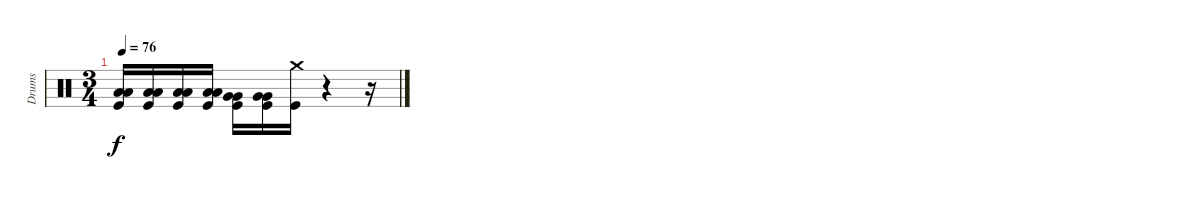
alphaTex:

\track ("Drums" "Drums") {instrument percussion}
\staff {score}
\articulation defaults
\ts (3 4)
\tempo 76
\clef neutral
\ks c
("Low Tom (hit)" "Low Tom (hit)" "Kick (hit)").16{dy f} ("Low Tom (hit)" "Low Tom (hit)" "Kick (hit)").16 ("Low Tom (hit)" "Low Tom (hit)" "Kick (hit)").16 ("Low Tom (hit)" "Low Tom (hit)" "Kick (hit)").16 ("Very Low Tom (hit)" "Very Low Tom (hit)" "Kick (hit)").16 ("Very Low Tom (hit)" "Very Low Tom (hit)" "Kick (hit)").16 ("Crash medium (hit)" "Kick (hit)").16 r.4 r.16
